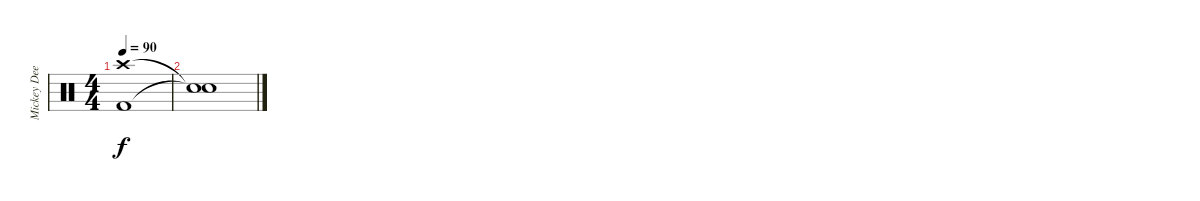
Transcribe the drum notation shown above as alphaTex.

\track ("Mickey Dee" "Mickey Dee") {instrument percussion}
\staff {score}
\articulation defaults
\ts (4 4)
\tempo 90
\clef neutral
\ks c
("Crash high (hit)" "Kick (hit) 2").1{dy f} |
("Snare (hit)"{t} "Snare (hit)"{t}).1
